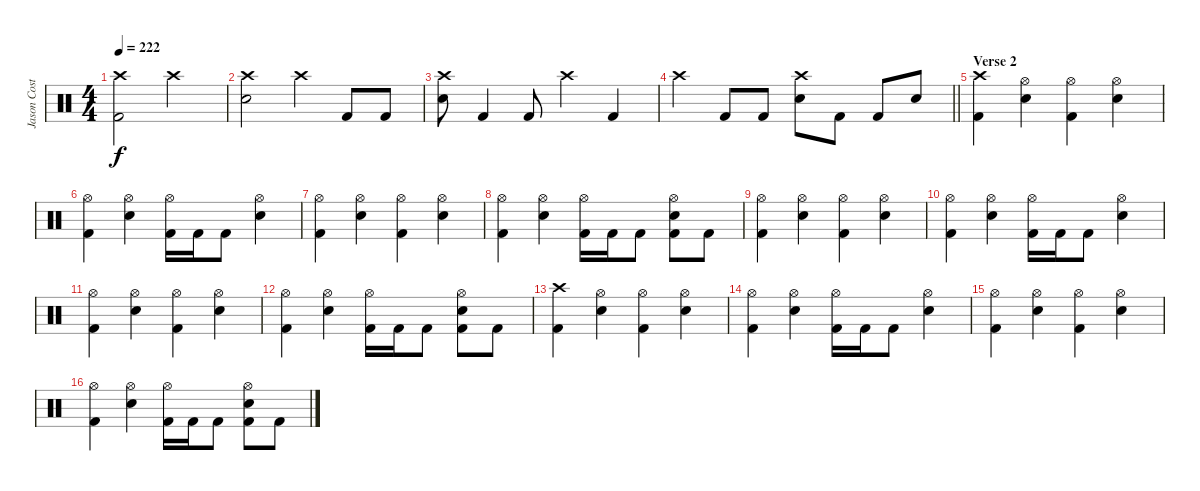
\track ("Jason Costa" "Jason Cost") {instrument percussion}
\staff {score}
\articulation defaults
\ts (4 4)
\tempo 222
\clef neutral
\ks c
("Crash high (hit)" "Kick (hit) 2").2{dy f} "Crash high (hit)".2 |
("Crash high (hit)" "Electric Snare (hit)").2 "Crash high (hit)".4 "Kick (hit) 2".8 "Kick (hit) 2".8 |
("Crash high (hit)" "Electric Snare (hit)").8 "Kick (hit) 2".4 "Kick (hit) 2".8 "Crash high (hit)".4 "Kick (hit) 2".4 |
\barLineRight lightlight "Crash high (hit)".4 "Kick (hit) 2".8 "Kick (hit) 2".8
("Crash high (hit)" "Electric Snare (hit)").8 "Kick (hit) 2".8 "Kick (hit) 2".8 "Electric Snare (hit)".8 |
\section ("" "Verse 2")
("Crash high (hit)" "Kick (hit) 2").4 ("Hi-Hat (open)" "Electric Snare (hit)").4 ("Hi-Hat (open)" "Kick (hit) 2").4 ("Hi-Hat (open)" "Electric Snare (hit)").4 |
("Hi-Hat (open)" "Kick (hit) 2").4 ("Hi-Hat (open)" "Electric Snare (hit)").4 ("Hi-Hat (open)" "Kick (hit) 2").16 "Kick (hit) 2".16 "Kick (hit) 2".8 ("Hi-Hat (open)" "Electric Snare (hit)").4 |
("Hi-Hat (open)" "Kick (hit) 2").4 ("Hi-Hat (open)" "Electric Snare (hit)").4 ("Hi-Hat (open)" "Kick (hit) 2").4 ("Hi-Hat (open)" "Electric Snare (hit)").4 |
("Hi-Hat (open)" "Kick (hit) 2").4 ("Hi-Hat (open)" "Electric Snare (hit)").4 ("Hi-Hat (open)" "Kick (hit) 2").16 "Kick (hit) 2".16 "Kick (hit) 2".8 ("Hi-Hat (open)" "Electric Snare (hit)" "Kick (hit) 2").8 "Kick (hit) 2".8 |
("Hi-Hat (open)" "Kick (hit) 2").4 ("Hi-Hat (open)" "Electric Snare (hit)").4 ("Hi-Hat (open)" "Kick (hit) 2").4 ("Hi-Hat (open)" "Electric Snare (hit)").4 |
("Hi-Hat (open)" "Kick (hit) 2").4 ("Hi-Hat (open)" "Electric Snare (hit)").4 ("Hi-Hat (open)" "Kick (hit) 2").16 "Kick (hit) 2".16 "Kick (hit) 2".8 ("Hi-Hat (open)" "Electric Snare (hit)").4 |
("Hi-Hat (open)" "Kick (hit) 2").4 ("Hi-Hat (open)" "Electric Snare (hit)").4 ("Hi-Hat (open)" "Kick (hit) 2").4 ("Hi-Hat (open)" "Electric Snare (hit)").4 |
("Hi-Hat (open)" "Kick (hit) 2").4 ("Hi-Hat (open)" "Electric Snare (hit)").4 ("Hi-Hat (open)" "Kick (hit) 2").16 "Kick (hit) 2".16 "Kick (hit) 2".8 ("Hi-Hat (open)" "Electric Snare (hit)" "Kick (hit) 2").8 "Kick (hit) 2".8 |
("Crash high (hit)" "Kick (hit) 2").4 ("Hi-Hat (open)" "Electric Snare (hit)").4 ("Hi-Hat (open)" "Kick (hit) 2").4 ("Hi-Hat (open)" "Electric Snare (hit)").4 |
("Hi-Hat (open)" "Kick (hit) 2").4 ("Hi-Hat (open)" "Electric Snare (hit)").4 ("Hi-Hat (open)" "Kick (hit) 2").16 "Kick (hit) 2".16 "Kick (hit) 2".8 ("Hi-Hat (open)" "Electric Snare (hit)").4 |
("Hi-Hat (open)" "Kick (hit) 2").4 ("Hi-Hat (open)" "Electric Snare (hit)").4 ("Hi-Hat (open)" "Kick (hit) 2").4 ("Hi-Hat (open)" "Electric Snare (hit)").4 |
("Hi-Hat (open)" "Kick (hit) 2").4 ("Hi-Hat (open)" "Electric Snare (hit)").4 ("Hi-Hat (open)" "Kick (hit) 2").16 "Kick (hit) 2".16 "Kick (hit) 2".8 ("Hi-Hat (open)" "Electric Snare (hit)" "Kick (hit) 2").8 "Kick (hit) 2".8
